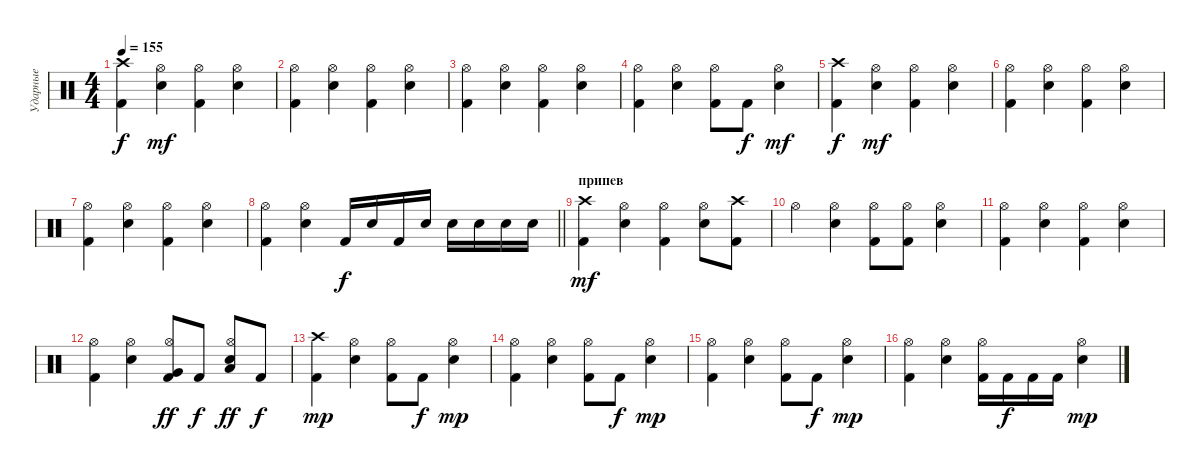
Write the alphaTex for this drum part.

\track ("Ударные" "Ударные") {instrument percussion}
\staff {score}
\articulation defaults
\ts (4 4)
\tempo 155
\clef neutral
\ks c
("Kick (hit) 2" "Crash high (hit)").4{dy f} ("Snare (hit) 2" "Hi-Hat (open)").4{dy mf} ("Kick (hit) 2" "Hi-Hat (open)").4 ("Snare (hit) 2" "Hi-Hat (open)").4 |
("Kick (hit) 2" "Hi-Hat (open)").4 ("Snare (hit) 2" "Hi-Hat (open)").4 ("Kick (hit) 2" "Hi-Hat (open)").4 ("Snare (hit) 2" "Hi-Hat (open)").4 |
("Kick (hit) 2" "Hi-Hat (open)").4 ("Snare (hit) 2" "Hi-Hat (open)").4 ("Kick (hit) 2" "Hi-Hat (open)").4 ("Snare (hit) 2" "Hi-Hat (open)").4 |
("Kick (hit) 2" "Hi-Hat (open)").4 ("Snare (hit) 2" "Hi-Hat (open)").4 ("Kick (hit) 2" "Hi-Hat (open)").8 "Kick (hit) 2".8{dy f} ("Snare (hit) 2" "Hi-Hat (open)").4{dy mf} |
("Kick (hit) 2" "Crash high (hit)").4{dy f} ("Snare (hit) 2" "Hi-Hat (open)").4{dy mf} ("Kick (hit) 2" "Hi-Hat (open)").4 ("Snare (hit) 2" "Hi-Hat (open)").4 |
("Kick (hit) 2" "Hi-Hat (open)").4 ("Snare (hit) 2" "Hi-Hat (open)").4 ("Kick (hit) 2" "Hi-Hat (open)").4 ("Snare (hit) 2" "Hi-Hat (open)").4 |
("Kick (hit) 2" "Hi-Hat (open)").4 ("Snare (hit) 2" "Hi-Hat (open)").4 ("Kick (hit) 2" "Hi-Hat (open)").4 ("Snare (hit) 2" "Hi-Hat (open)").4 |
\barLineRight lightlight
("Kick (hit) 2" "Hi-Hat (open)").4 ("Snare (hit) 2" "Hi-Hat (open)").4 "Kick (hit) 2".16{dy f} "Snare (hit) 2".16 "Kick (hit) 2".16 "Snare (hit) 2".16 "Snare (hit) 2".16 "Snare (hit) 2".16 "Snare (hit) 2".16 "Snare (hit) 2".16 |
\section ("" "припев")
("Kick (hit) 2" "Crash high (hit)").4{dy mf} ("Snare (hit) 2" "Hi-Hat (open)").4 ("Kick (hit) 2" "Hi-Hat (open)").4 ("Snare (hit) 2" "Hi-Hat (open)").8 ("Kick (hit) 2" "Crash high (hit)").8 |
"Hi-Hat (open)".4 ("Snare (hit) 2" "Hi-Hat (open)").4 ("Kick (hit) 2" "Hi-Hat (open)").8 ("Kick (hit) 2" "Hi-Hat (open)").8 ("Snare (hit) 2" "Hi-Hat (open)").4 |
("Kick (hit) 2" "Hi-Hat (open)").4 ("Snare (hit) 2" "Hi-Hat (open)").4 ("Kick (hit) 2" "Hi-Hat (open)").4 ("Snare (hit) 2" "Hi-Hat (open)").4 |
("Kick (hit) 2" "Hi-Hat (open)").4 ("Snare (hit) 2" "Hi-Hat (open)").4 ("Kick (hit) 2" "Hi-Hat (open)" "Very Low Tom (hit)").8{dy ff} "Kick (hit) 2".8{dy f} ("Snare (hit) 2" "Hi-Hat (open)" "Low Floor Tom (hit)").8{dy ff} "Kick (hit) 2".8{dy f} |
("Kick (hit) 2" "Crash high (hit)").4{dy mp} ("Snare (hit) 2" "Hi-Hat (open)").4 ("Kick (hit) 2" "Hi-Hat (open)").8 "Kick (hit) 2".8{dy f} ("Snare (hit) 2" "Hi-Hat (open)").4{dy mp} |
("Kick (hit) 2" "Hi-Hat (open)").4 ("Snare (hit) 2" "Hi-Hat (open)").4 ("Kick (hit) 2" "Hi-Hat (open)").8 "Kick (hit) 2".8{dy f} ("Snare (hit) 2" "Hi-Hat (open)").4{dy mp} |
("Kick (hit) 2" "Hi-Hat (open)").4 ("Snare (hit) 2" "Hi-Hat (open)").4 ("Kick (hit) 2" "Hi-Hat (open)").8 "Kick (hit) 2".8{dy f} ("Snare (hit) 2" "Hi-Hat (open)").4{dy mp} |
("Kick (hit) 2" "Hi-Hat (open)").4 ("Snare (hit) 2" "Hi-Hat (open)").4 ("Kick (hit) 2" "Hi-Hat (open)").16 "Kick (hit) 2".16{dy f} "Kick (hit) 2".16 "Kick (hit) 2".16 ("Snare (hit) 2" "Hi-Hat (open)").4{dy mp}
